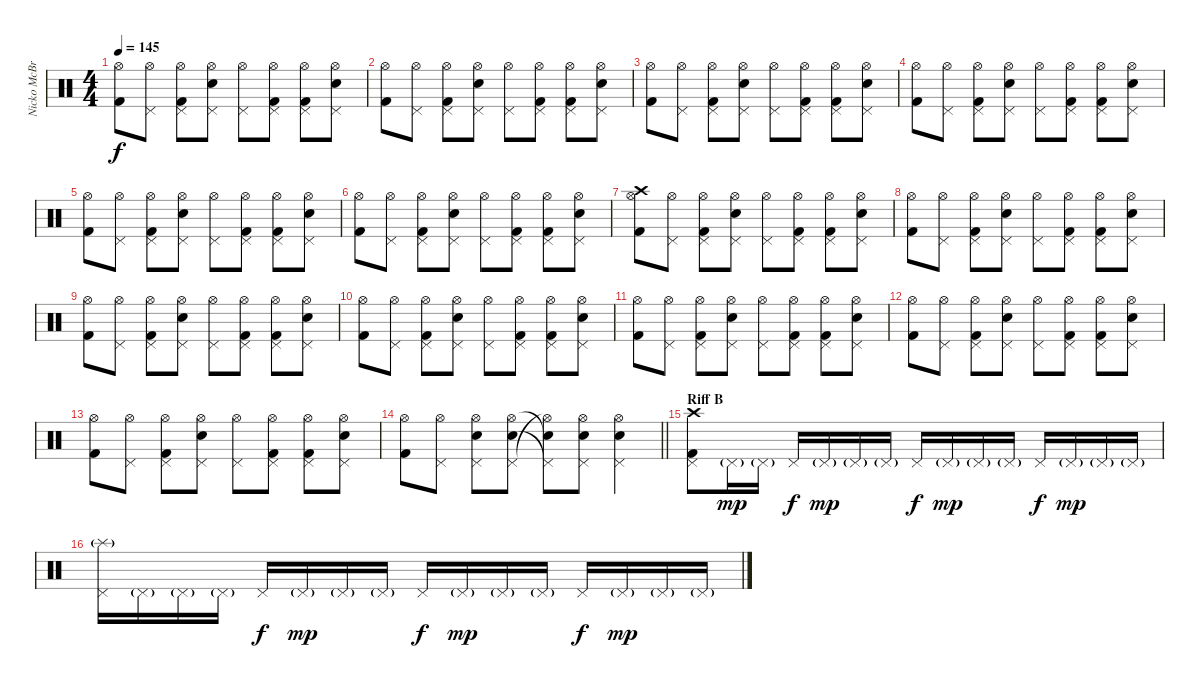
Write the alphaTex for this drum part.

\track ("Nicko McBrain" "Nicko McBr") {instrument percussion}
\staff {score}
\articulation defaults
\ts (4 4)
\tempo 145
\clef neutral
\ks c
("Kick (hit) 2" "Hi-Hat (open)").8{dy f} ("Pedal Hi-Hat (hit)" "Hi-Hat (open)").8 ("Kick (hit) 2" "Pedal Hi-Hat (hit)" "Hi-Hat (open)").8 ("Snare (hit) 2" "Pedal Hi-Hat (hit)" "Hi-Hat (open)").8 ("Pedal Hi-Hat (hit)" "Hi-Hat (open)").8 ("Kick (hit) 2" "Pedal Hi-Hat (hit)" "Hi-Hat (open)").8 ("Kick (hit) 2" "Pedal Hi-Hat (hit)" "Hi-Hat (open)").8 ("Snare (hit) 2" "Pedal Hi-Hat (hit)" "Hi-Hat (open)").8 |
("Kick (hit) 2" "Hi-Hat (open)").8 ("Pedal Hi-Hat (hit)" "Hi-Hat (open)").8 ("Kick (hit) 2" "Pedal Hi-Hat (hit)" "Hi-Hat (open)").8 ("Snare (hit) 2" "Pedal Hi-Hat (hit)" "Hi-Hat (open)").8 ("Pedal Hi-Hat (hit)" "Hi-Hat (open)").8 ("Kick (hit) 2" "Pedal Hi-Hat (hit)" "Hi-Hat (open)").8 ("Kick (hit) 2" "Pedal Hi-Hat (hit)" "Hi-Hat (open)").8 ("Snare (hit) 2" "Pedal Hi-Hat (hit)" "Hi-Hat (open)").8 |
("Kick (hit) 2" "Hi-Hat (open)").8 ("Pedal Hi-Hat (hit)" "Hi-Hat (open)").8 ("Kick (hit) 2" "Pedal Hi-Hat (hit)" "Hi-Hat (open)").8 ("Snare (hit) 2" "Pedal Hi-Hat (hit)" "Hi-Hat (open)").8 ("Pedal Hi-Hat (hit)" "Hi-Hat (open)").8 ("Kick (hit) 2" "Pedal Hi-Hat (hit)" "Hi-Hat (open)").8 ("Kick (hit) 2" "Pedal Hi-Hat (hit)" "Hi-Hat (open)").8 ("Snare (hit) 2" "Pedal Hi-Hat (hit)" "Hi-Hat (open)").8 |
("Kick (hit) 2" "Hi-Hat (open)").8 ("Pedal Hi-Hat (hit)" "Hi-Hat (open)").8 ("Kick (hit) 2" "Pedal Hi-Hat (hit)" "Hi-Hat (open)").8 ("Snare (hit) 2" "Pedal Hi-Hat (hit)" "Hi-Hat (open)").8 ("Pedal Hi-Hat (hit)" "Hi-Hat (open)").8 ("Kick (hit) 2" "Pedal Hi-Hat (hit)" "Hi-Hat (open)").8 ("Kick (hit) 2" "Pedal Hi-Hat (hit)" "Hi-Hat (open)").8 ("Snare (hit) 2" "Pedal Hi-Hat (hit)" "Hi-Hat (open)").8 |
("Kick (hit) 2" "Hi-Hat (open)").8 ("Pedal Hi-Hat (hit)" "Hi-Hat (open)").8 ("Kick (hit) 2" "Pedal Hi-Hat (hit)" "Hi-Hat (open)").8 ("Snare (hit) 2" "Pedal Hi-Hat (hit)" "Hi-Hat (open)").8 ("Pedal Hi-Hat (hit)" "Hi-Hat (open)").8 ("Kick (hit) 2" "Pedal Hi-Hat (hit)" "Hi-Hat (open)").8 ("Kick (hit) 2" "Pedal Hi-Hat (hit)" "Hi-Hat (open)").8 ("Snare (hit) 2" "Pedal Hi-Hat (hit)" "Hi-Hat (open)").8 |
("Kick (hit) 2" "Hi-Hat (open)").8 ("Pedal Hi-Hat (hit)" "Hi-Hat (open)").8 ("Kick (hit) 2" "Pedal Hi-Hat (hit)" "Hi-Hat (open)").8 ("Snare (hit) 2" "Pedal Hi-Hat (hit)" "Hi-Hat (open)").8 ("Pedal Hi-Hat (hit)" "Hi-Hat (open)").8 ("Kick (hit) 2" "Pedal Hi-Hat (hit)" "Hi-Hat (open)").8 ("Kick (hit) 2" "Pedal Hi-Hat (hit)" "Hi-Hat (open)").8 ("Snare (hit) 2" "Pedal Hi-Hat (hit)" "Hi-Hat (open)").8 |
("Kick (hit) 2" "Hi-Hat (open)" "Crash high (hit)").8 ("Pedal Hi-Hat (hit)" "Hi-Hat (open)").8 ("Kick (hit) 2" "Pedal Hi-Hat (hit)" "Hi-Hat (open)").8 ("Snare (hit) 2" "Pedal Hi-Hat (hit)" "Hi-Hat (open)").8 ("Pedal Hi-Hat (hit)" "Hi-Hat (open)").8 ("Kick (hit) 2" "Pedal Hi-Hat (hit)" "Hi-Hat (open)").8 ("Kick (hit) 2" "Pedal Hi-Hat (hit)" "Hi-Hat (open)").8 ("Snare (hit) 2" "Pedal Hi-Hat (hit)" "Hi-Hat (open)").8 |
("Kick (hit) 2" "Hi-Hat (open)").8 ("Pedal Hi-Hat (hit)" "Hi-Hat (open)").8 ("Kick (hit) 2" "Pedal Hi-Hat (hit)" "Hi-Hat (open)").8 ("Snare (hit) 2" "Pedal Hi-Hat (hit)" "Hi-Hat (open)").8 ("Pedal Hi-Hat (hit)" "Hi-Hat (open)").8 ("Kick (hit) 2" "Pedal Hi-Hat (hit)" "Hi-Hat (open)").8 ("Kick (hit) 2" "Pedal Hi-Hat (hit)" "Hi-Hat (open)").8 ("Snare (hit) 2" "Pedal Hi-Hat (hit)" "Hi-Hat (open)").8 |
("Kick (hit) 2" "Hi-Hat (open)").8 ("Pedal Hi-Hat (hit)" "Hi-Hat (open)").8 ("Kick (hit) 2" "Pedal Hi-Hat (hit)" "Hi-Hat (open)").8 ("Snare (hit) 2" "Pedal Hi-Hat (hit)" "Hi-Hat (open)").8 ("Pedal Hi-Hat (hit)" "Hi-Hat (open)").8 ("Kick (hit) 2" "Pedal Hi-Hat (hit)" "Hi-Hat (open)").8 ("Kick (hit) 2" "Pedal Hi-Hat (hit)" "Hi-Hat (open)").8 ("Snare (hit) 2" "Pedal Hi-Hat (hit)" "Hi-Hat (open)").8 |
("Kick (hit) 2" "Hi-Hat (open)").8 ("Pedal Hi-Hat (hit)" "Hi-Hat (open)").8 ("Kick (hit) 2" "Pedal Hi-Hat (hit)" "Hi-Hat (open)").8 ("Snare (hit) 2" "Pedal Hi-Hat (hit)" "Hi-Hat (open)").8 ("Pedal Hi-Hat (hit)" "Hi-Hat (open)").8 ("Kick (hit) 2" "Pedal Hi-Hat (hit)" "Hi-Hat (open)").8 ("Kick (hit) 2" "Pedal Hi-Hat (hit)" "Hi-Hat (open)").8 ("Snare (hit) 2" "Pedal Hi-Hat (hit)" "Hi-Hat (open)").8 |
("Kick (hit) 2" "Hi-Hat (open)").8 ("Pedal Hi-Hat (hit)" "Hi-Hat (open)").8 ("Kick (hit) 2" "Pedal Hi-Hat (hit)" "Hi-Hat (open)").8 ("Snare (hit) 2" "Pedal Hi-Hat (hit)" "Hi-Hat (open)").8 ("Pedal Hi-Hat (hit)" "Hi-Hat (open)").8 ("Kick (hit) 2" "Pedal Hi-Hat (hit)" "Hi-Hat (open)").8 ("Kick (hit) 2" "Pedal Hi-Hat (hit)" "Hi-Hat (open)").8 ("Snare (hit) 2" "Pedal Hi-Hat (hit)" "Hi-Hat (open)").8 |
("Kick (hit) 2" "Hi-Hat (open)").8 ("Pedal Hi-Hat (hit)" "Hi-Hat (open)").8 ("Kick (hit) 2" "Pedal Hi-Hat (hit)" "Hi-Hat (open)").8 ("Snare (hit) 2" "Pedal Hi-Hat (hit)" "Hi-Hat (open)").8 ("Pedal Hi-Hat (hit)" "Hi-Hat (open)").8 ("Kick (hit) 2" "Pedal Hi-Hat (hit)" "Hi-Hat (open)").8 ("Kick (hit) 2" "Pedal Hi-Hat (hit)" "Hi-Hat (open)").8 ("Snare (hit) 2" "Pedal Hi-Hat (hit)" "Hi-Hat (open)").8 |
("Kick (hit) 2" "Hi-Hat (open)").8 ("Pedal Hi-Hat (hit)" "Hi-Hat (open)").8 ("Kick (hit) 2" "Pedal Hi-Hat (hit)" "Hi-Hat (open)").8 ("Snare (hit) 2" "Pedal Hi-Hat (hit)" "Hi-Hat (open)").8 ("Pedal Hi-Hat (hit)" "Hi-Hat (open)").8 ("Kick (hit) 2" "Pedal Hi-Hat (hit)" "Hi-Hat (open)").8 ("Kick (hit) 2" "Pedal Hi-Hat (hit)" "Hi-Hat (open)").8 ("Snare (hit) 2" "Pedal Hi-Hat (hit)" "Hi-Hat (open)").8 |
\barLineRight lightlight
("Kick (hit) 2" "Hi-Hat (open)").8 ("Pedal Hi-Hat (hit)" "Hi-Hat (open)").8 ("Snare (hit) 2" "Pedal Hi-Hat (hit)" "Hi-Hat (open)").8 ("Snare (hit) 2" "Pedal Hi-Hat (hit)" "Hi-Hat (open)").8 ("Pedal Hi-Hat (hit)"{t} "Hi-Hat (open)"{t} "Snare (hit)"{t}).8 ("Snare (hit) 2" "Pedal Hi-Hat (hit)" "Hi-Hat (open)").8 ("Snare (hit) 2" "Pedal Hi-Hat (hit)" "Hi-Hat (open)").4 |
\section ("" "Riff B")
("Kick (hit) 2" "Pedal Hi-Hat (hit)" "Crash high (hit)").8 "Pedal Hi-Hat (hit)"{g}.16{dy mp} "Pedal Hi-Hat (hit)"{g}.16 "Pedal Hi-Hat (hit)".16{dy f} "Pedal Hi-Hat (hit)"{g}.16{dy mp} "Pedal Hi-Hat (hit)"{g}.16 "Pedal Hi-Hat (hit)"{g}.16 "Pedal Hi-Hat (hit)".16{dy f} "Pedal Hi-Hat (hit)"{g}.16{dy mp} "Pedal Hi-Hat (hit)"{g}.16 "Pedal Hi-Hat (hit)"{g}.16 "Pedal Hi-Hat (hit)".16{dy f} "Pedal Hi-Hat (hit)"{g}.16{dy mp} "Pedal Hi-Hat (hit)"{g}.16 "Pedal Hi-Hat (hit)"{g}.16 |
("Pedal Hi-Hat (hit)" "Splash (hit)"{g}).16 "Pedal Hi-Hat (hit)"{g}.16 "Pedal Hi-Hat (hit)"{g}.16 "Pedal Hi-Hat (hit)"{g}.16 "Pedal Hi-Hat (hit)".16{dy f} "Pedal Hi-Hat (hit)"{g}.16{dy mp} "Pedal Hi-Hat (hit)"{g}.16 "Pedal Hi-Hat (hit)"{g}.16 "Pedal Hi-Hat (hit)".16{dy f} "Pedal Hi-Hat (hit)"{g}.16{dy mp} "Pedal Hi-Hat (hit)"{g}.16 "Pedal Hi-Hat (hit)"{g}.16 "Pedal Hi-Hat (hit)".16{dy f} "Pedal Hi-Hat (hit)"{g}.16{dy mp} "Pedal Hi-Hat (hit)"{g}.16 "Pedal Hi-Hat (hit)"{g}.16
